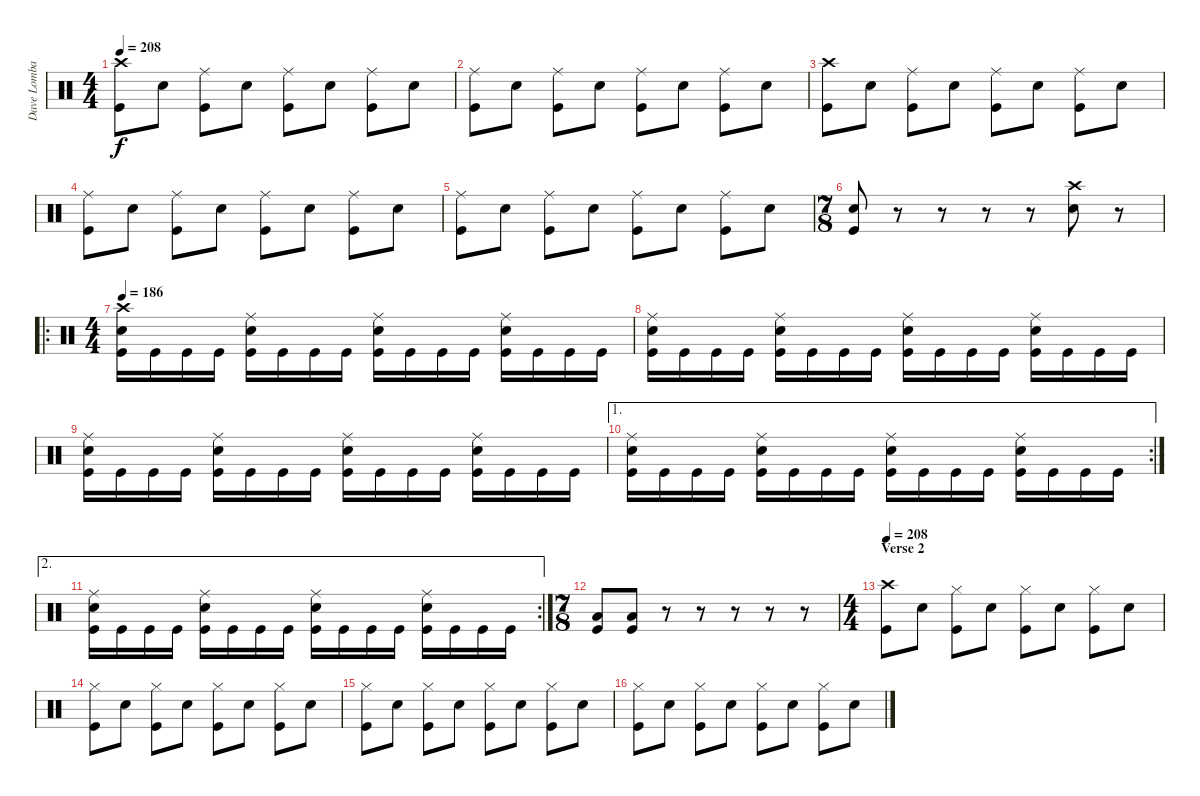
\track ("Dave Lombardo" "Dave Lomba") {instrument percussion}
\staff {score}
\articulation defaults
\ts (4 4)
\tempo 208
\clef neutral
\ks c
("Crash high (hit)" "Kick (hit)").8{dy f} "Electric Snare (hit)".8 ("Ride (middle)" "Kick (hit)").8 "Electric Snare (hit)".8 ("Ride (middle)" "Kick (hit)").8 "Electric Snare (hit)".8 ("Ride (middle)" "Kick (hit)").8 "Electric Snare (hit)".8 |
("Ride (middle)" "Kick (hit)").8 "Electric Snare (hit)".8 ("Ride (middle)" "Kick (hit)").8 "Electric Snare (hit)".8 ("Ride (middle)" "Kick (hit)").8 "Electric Snare (hit)".8 ("Ride (middle)" "Kick (hit)").8 "Electric Snare (hit)".8 |
("Crash high (hit)" "Kick (hit)").8 "Electric Snare (hit)".8 ("Ride (middle)" "Kick (hit)").8 "Electric Snare (hit)".8 ("Ride (middle)" "Kick (hit)").8 "Electric Snare (hit)".8 ("Ride (middle)" "Kick (hit)").8 "Electric Snare (hit)".8 |
("Ride (middle)" "Kick (hit)").8 "Electric Snare (hit)".8 ("Ride (middle)" "Kick (hit)").8 "Electric Snare (hit)".8 ("Ride (middle)" "Kick (hit)").8 "Electric Snare (hit)".8 ("Ride (middle)" "Kick (hit)").8 "Electric Snare (hit)".8 |
("Ride (middle)" "Kick (hit)").8 "Electric Snare (hit)".8 ("Ride (middle)" "Kick (hit)").8 "Electric Snare (hit)".8 ("Ride (middle)" "Kick (hit)").8 "Electric Snare (hit)".8 ("Ride (middle)" "Kick (hit)").8 "Electric Snare (hit)".8 |
\ts (7 8)
("Electric Snare (hit)" "Kick (hit)").8 r.8 r.8 r.8 r.8 ("Crash high (hit)" "Electric Snare (hit)").8 r.8 |
\ro
\ts (4 4)
\tempo 186
("Crash high (hit)" "Electric Snare (hit)" "Kick (hit)").16 "Kick (hit)".16 "Kick (hit)".16 "Kick (hit)".16 ("Ride (middle)" "Electric Snare (hit)" "Kick (hit)").16 "Kick (hit)".16 "Kick (hit)".16 "Kick (hit)".16 ("Ride (middle)" "Electric Snare (hit)" "Kick (hit)").16 "Kick (hit)".16 "Kick (hit)".16 "Kick (hit)".16 ("Ride (middle)" "Electric Snare (hit)" "Kick (hit)").16 "Kick (hit)".16 "Kick (hit)".16 "Kick (hit)".16 |
("Ride (middle)" "Electric Snare (hit)" "Kick (hit)").16 "Kick (hit)".16 "Kick (hit)".16 "Kick (hit)".16 ("Ride (middle)" "Electric Snare (hit)" "Kick (hit)").16 "Kick (hit)".16 "Kick (hit)".16 "Kick (hit)".16 ("Ride (middle)" "Electric Snare (hit)" "Kick (hit)").16 "Kick (hit)".16 "Kick (hit)".16 "Kick (hit)".16 ("Ride (middle)" "Electric Snare (hit)" "Kick (hit)").16 "Kick (hit)".16 "Kick (hit)".16 "Kick (hit)".16 |
("Ride (middle)" "Electric Snare (hit)" "Kick (hit)").16 "Kick (hit)".16 "Kick (hit)".16 "Kick (hit)".16 ("Ride (middle)" "Electric Snare (hit)" "Kick (hit)").16 "Kick (hit)".16 "Kick (hit)".16 "Kick (hit)".16 ("Ride (middle)" "Electric Snare (hit)" "Kick (hit)").16 "Kick (hit)".16 "Kick (hit)".16 "Kick (hit)".16 ("Ride (middle)" "Electric Snare (hit)" "Kick (hit)").16 "Kick (hit)".16 "Kick (hit)".16 "Kick (hit)".16 |
\ae 1
\rc 2
("Ride (middle)" "Electric Snare (hit)" "Kick (hit)").16 "Kick (hit)".16 "Kick (hit)".16 "Kick (hit)".16 ("Ride (middle)" "Electric Snare (hit)" "Kick (hit)").16 "Kick (hit)".16 "Kick (hit)".16 "Kick (hit)".16 ("Ride (middle)" "Electric Snare (hit)" "Kick (hit)").16 "Kick (hit)".16 "Kick (hit)".16 "Kick (hit)".16 ("Ride (middle)" "Electric Snare (hit)" "Kick (hit)").16 "Kick (hit)".16 "Kick (hit)".16 "Kick (hit)".16 |
\ae 2
\rc 2
("Ride (middle)" "Electric Snare (hit)" "Kick (hit)").16 "Kick (hit)".16 "Kick (hit)".16 "Kick (hit)".16 ("Ride (middle)" "Electric Snare (hit)" "Kick (hit)").16 "Kick (hit)".16 "Kick (hit)".16 "Kick (hit)".16 ("Ride (middle)" "Electric Snare (hit)" "Kick (hit)").16 "Kick (hit)".16 "Kick (hit)".16 "Kick (hit)".16 ("Ride (middle)" "Electric Snare (hit)" "Kick (hit)").16 "Kick (hit)".16 "Kick (hit)".16 "Kick (hit)".16 |
\ts (7 8)
("Low Tom (hit)" "Kick (hit)").8 ("Low Tom (hit)" "Kick (hit)").8 r.8 r.8 r.8 r.8 r.8 |
\ts (4 4)
\section ("" "Verse 2")
\tempo 208
("Crash high (hit)" "Kick (hit)").8 "Electric Snare (hit)".8 ("Hi-Hat (closed)" "Kick (hit)").8 "Electric Snare (hit)".8 ("Hi-Hat (closed)" "Kick (hit)").8 "Electric Snare (hit)".8 ("Hi-Hat (closed)" "Kick (hit)").8 "Electric Snare (hit)".8 |
("Hi-Hat (closed)" "Kick (hit)").8 "Electric Snare (hit)".8 ("Hi-Hat (closed)" "Kick (hit)").8 "Electric Snare (hit)".8 ("Hi-Hat (closed)" "Kick (hit)").8 "Electric Snare (hit)".8 ("Hi-Hat (closed)" "Kick (hit)").8 "Electric Snare (hit)".8 |
("Hi-Hat (closed)" "Kick (hit)").8 "Electric Snare (hit)".8 ("Hi-Hat (closed)" "Kick (hit)").8 "Electric Snare (hit)".8 ("Hi-Hat (closed)" "Kick (hit)").8 "Electric Snare (hit)".8 ("Hi-Hat (closed)" "Kick (hit)").8 "Electric Snare (hit)".8 |
("Hi-Hat (closed)" "Kick (hit)").8 "Electric Snare (hit)".8 ("Hi-Hat (closed)" "Kick (hit)").8 "Electric Snare (hit)".8 ("Hi-Hat (closed)" "Kick (hit)").8 "Electric Snare (hit)".8 ("Hi-Hat (closed)" "Kick (hit)").8 "Electric Snare (hit)".8
